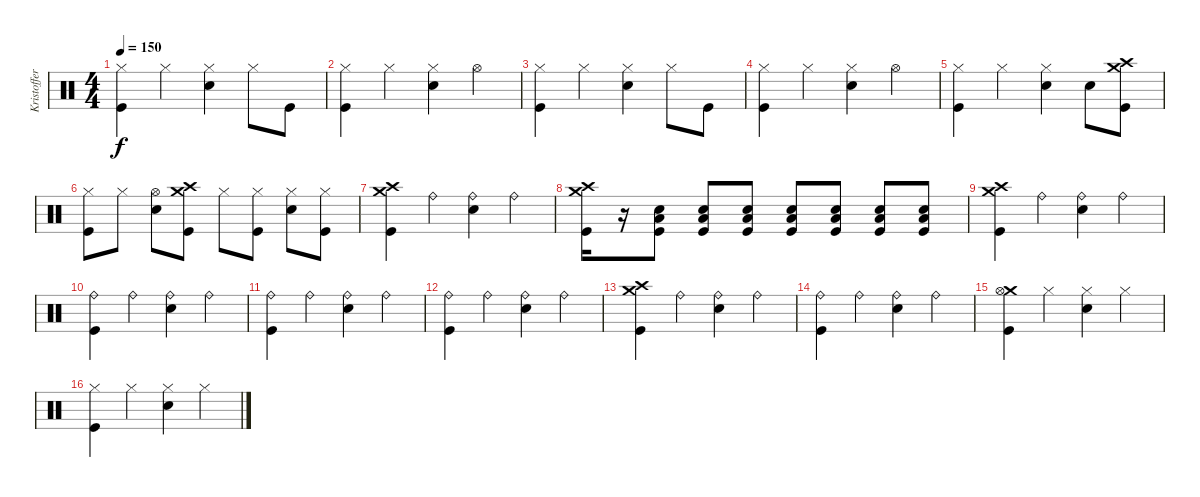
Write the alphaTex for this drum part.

\track ("Kristoffer Söderström - Drums" "Kristoffer") {instrument percussion}
\staff {score}
\articulation defaults
\ts (4 4)
\tempo 150
\clef neutral
\ks c
("Hi-Hat (closed)" "Kick (hit)").4{dy f} "Hi-Hat (closed)".4 ("Hi-Hat (closed)" "Snare (hit) 2").4 "Hi-Hat (closed)".8 "Kick (hit)".8 |
("Hi-Hat (closed)" "Kick (hit)").4 "Hi-Hat (closed)".4 ("Hi-Hat (closed)" "Snare (hit) 2").4 "Hi-Hat (open)".4 |
("Hi-Hat (closed)" "Kick (hit)").4 "Hi-Hat (closed)".4 ("Hi-Hat (closed)" "Snare (hit) 2").4 "Hi-Hat (closed)".8 "Kick (hit)".8 |
("Hi-Hat (closed)" "Kick (hit)").4 "Hi-Hat (closed)".4 ("Hi-Hat (closed)" "Snare (hit) 2").4 "Hi-Hat (open)".4 |
("Hi-Hat (closed)" "Kick (hit)").4 "Hi-Hat (closed)".4 ("Hi-Hat (closed)" "Snare (hit) 2").4 "Snare (hit) 2".8 ("Crash high (hit)" "Crash medium (hit)" "Kick (hit)").8 |
("Hi-Hat (closed)" "Kick (hit)").8 "Hi-Hat (closed)".8 ("Hi-Hat (open)" "Snare (hit) 2").8 ("Crash medium (hit)" "Crash high (hit)" "Kick (hit)").8 "Hi-Hat (closed)".8 ("Hi-Hat (closed)" "Kick (hit)").8 ("Hi-Hat (closed)" "Snare (hit) 2").8 ("Hi-Hat (closed)" "Kick (hit)").8 |
("Crash medium (hit)" "Crash high (hit)" "Kick (hit)").4 "Ride (bell)".4 ("Ride (bell)" "Snare (hit) 2").4 "Ride (bell)".4 |
("Crash medium (hit)" "Crash high (hit)" "Kick (hit)").16 r.16{volume 6} ("Snare (hit) 2" "Low Tom (hit)" "Kick (hit)").8{volume 13} ("Snare (hit) 2" "Low Tom (hit)" "Kick (hit)").8 ("Snare (hit) 2" "Low Tom (hit)" "Kick (hit)").8 ("Snare (hit) 2" "Low Tom (hit)" "Kick (hit)").8 ("Snare (hit) 2" "Low Tom (hit)" "Kick (hit)").8 ("Snare (hit) 2" "Low Tom (hit)" "Kick (hit)").8 ("Snare (hit) 2" "Low Tom (hit)" "Kick (hit)").8 |
("Crash medium (hit)" "Crash high (hit)" "Kick (hit)").4 "Ride (bell)".4 ("Ride (bell)" "Snare (hit) 2").4 "Ride (bell)".4 |
("Ride (bell)" "Kick (hit)").4 "Ride (bell)".4 ("Ride (bell)" "Snare (hit) 2").4 "Ride (bell)".4 |
("Ride (bell)" "Kick (hit)").4 "Ride (bell)".4 ("Ride (bell)" "Snare (hit) 2").4 "Ride (bell)".4 |
("Ride (bell)" "Kick (hit)").4 "Ride (bell)".4 ("Ride (bell)" "Snare (hit) 2").4 "Ride (bell)".4 |
("Crash medium (hit)" "Crash high (hit)" "Kick (hit)").4 "Ride (bell)".4 ("Ride (bell)" "Snare (hit) 2").4 "Ride (bell)".4 |
("Ride (bell)" "Kick (hit)").4 "Ride (bell)".4 ("Ride (bell)" "Snare (hit) 2").4 "Ride (bell)".4 |
("Crash medium (hit)" "Hi-Hat (open)" "Kick (hit)").4 "Hi-Hat (closed)".4 ("Hi-Hat (closed)" "Snare (hit) 2").4 "Hi-Hat (closed)".4 |
("Hi-Hat (closed)" "Kick (hit)").4 "Hi-Hat (closed)".4 ("Hi-Hat (closed)" "Snare (hit) 2").4 "Hi-Hat (closed)".4
